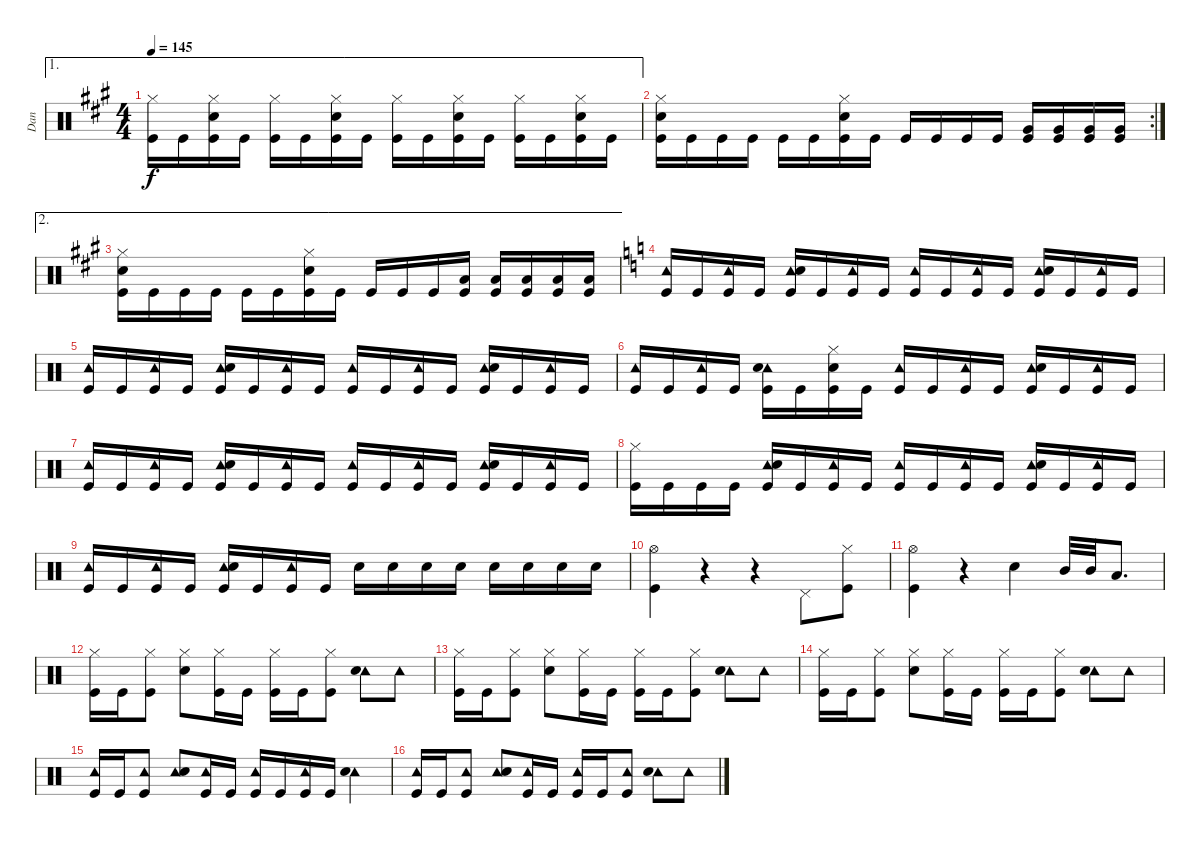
\track ("Dan" "Dan") {instrument percussion}
\staff {score}
\articulation defaults
\ae 1
\ts (4 4)
\tempo 145
\clef neutral
\ks a
("Hi-Hat (closed)" "Kick (hit)").16{dy f} "Kick (hit)".16 ("Hi-Hat (closed)" "Snare (hit) 2" "Kick (hit)").16 "Kick (hit)".16 ("Hi-Hat (closed)" "Kick (hit)").16 "Kick (hit)".16 ("Hi-Hat (closed)" "Snare (hit) 2" "Kick (hit)").16 "Kick (hit)".16 ("Hi-Hat (closed)" "Kick (hit)").16 "Kick (hit)".16 ("Hi-Hat (closed)" "Snare (hit) 2" "Kick (hit)").16 "Kick (hit)".16 ("Hi-Hat (closed)" "Kick (hit)").16 "Kick (hit)".16 ("Hi-Hat (closed)" "Snare (hit) 2" "Kick (hit)").16 "Kick (hit)".16 |
\rc 2
("Hi-Hat (closed)" "Snare (hit) 2" "Kick (hit)").16 "Kick (hit)".16 "Kick (hit)".16 "Kick (hit)".16 "Kick (hit)".16 "Kick (hit)".16 ("Hi-Hat (closed)" "Snare (hit) 2" "Kick (hit)").16 "Kick (hit)".16 "Kick (hit)".16 "Kick (hit)".16 "Kick (hit)".16 "Kick (hit)".16 ("Very Low Tom (hit)" "Kick (hit)").16 ("Very Low Tom (hit)" "Kick (hit)").16 ("Very Low Tom (hit)" "Kick (hit)").16 ("Very Low Tom (hit)" "Kick (hit)").16 |
\ae 2
("Hi-Hat (closed)" "Snare (hit) 2" "Kick (hit)").16 "Kick (hit)".16 "Kick (hit)".16 "Kick (hit)".16 "Kick (hit)".16 "Kick (hit)".16 ("Hi-Hat (closed)" "Snare (hit) 2" "Kick (hit)").16 "Kick (hit)".16 "Kick (hit)".16 "Kick (hit)".16 "Kick (hit)".16 ("Low Tom (hit)" "Kick (hit)").16 ("Low Tom (hit)" "Kick (hit)").16 ("Low Tom (hit)" "Kick (hit)").16 ("Low Tom (hit)" "Kick (hit)").16 ("Low Tom (hit)" "Kick (hit)").16 |
\ks c
("Tambourine (hit)" "Kick (hit)").16 "Kick (hit)".16 ("Tambourine (hit)" "Kick (hit)").16 "Kick (hit)".16 ("Tambourine (hit)" "Snare (hit) 2" "Kick (hit)").16 "Kick (hit)".16 ("Tambourine (hit)" "Kick (hit)").16 "Kick (hit)".16 ("Tambourine (hit)" "Kick (hit)").16 "Kick (hit)".16 ("Tambourine (hit)" "Kick (hit)").16 "Kick (hit)".16 ("Tambourine (hit)" "Snare (hit) 2" "Kick (hit)").16 "Kick (hit)".16 ("Tambourine (hit)" "Kick (hit)").16 "Kick (hit)".16 |
("Tambourine (hit)" "Kick (hit)").16 "Kick (hit)".16 ("Tambourine (hit)" "Kick (hit)").16 "Kick (hit)".16 ("Tambourine (hit)" "Snare (hit) 2" "Kick (hit)").16 "Kick (hit)".16 ("Tambourine (hit)" "Kick (hit)").16 "Kick (hit)".16 ("Tambourine (hit)" "Kick (hit)").16 "Kick (hit)".16 ("Tambourine (hit)" "Kick (hit)").16 "Kick (hit)".16 ("Tambourine (hit)" "Snare (hit) 2" "Kick (hit)").16 "Kick (hit)".16 ("Tambourine (hit)" "Kick (hit)").16 "Kick (hit)".16 |
("Tambourine (hit)" "Kick (hit)").16 "Kick (hit)".16 ("Tambourine (hit)" "Kick (hit)").16 "Kick (hit)".16 ("Tambourine (hit)" "Snare (hit) 2" "Kick (hit)").16 "Kick (hit)".16 ("Hi-Hat (closed)" "Snare (hit) 2" "Kick (hit)").16 "Kick (hit)".16 ("Tambourine (hit)" "Kick (hit)").16 "Kick (hit)".16 ("Tambourine (hit)" "Kick (hit)").16 "Kick (hit)".16 ("Tambourine (hit)" "Snare (hit) 2" "Kick (hit)").16 "Kick (hit)".16 ("Tambourine (hit)" "Kick (hit)").16 "Kick (hit)".16 |
("Tambourine (hit)" "Kick (hit)").16 "Kick (hit)".16 ("Tambourine (hit)" "Kick (hit)").16 "Kick (hit)".16 ("Tambourine (hit)" "Snare (hit) 2" "Kick (hit)").16 "Kick (hit)".16 ("Tambourine (hit)" "Kick (hit)").16 "Kick (hit)".16 ("Tambourine (hit)" "Kick (hit)").16 "Kick (hit)".16 ("Tambourine (hit)" "Kick (hit)").16 "Kick (hit)".16 ("Tambourine (hit)" "Snare (hit) 2" "Kick (hit)").16 "Kick (hit)".16 ("Tambourine (hit)" "Kick (hit)").16 "Kick (hit)".16 |
("Hi-Hat (closed)" "Kick (hit)").16 "Kick (hit)".16 "Kick (hit)".16 "Kick (hit)".16 ("Tambourine (hit)" "Snare (hit) 2" "Kick (hit)").16 "Kick (hit)".16 ("Tambourine (hit)" "Kick (hit)").16 "Kick (hit)".16 ("Tambourine (hit)" "Kick (hit)").16 "Kick (hit)".16 ("Tambourine (hit)" "Kick (hit)").16 "Kick (hit)".16 ("Tambourine (hit)" "Snare (hit) 2" "Kick (hit)").16 "Kick (hit)".16 ("Tambourine (hit)" "Kick (hit)").16 "Kick (hit)".16 |
("Tambourine (hit)" "Kick (hit)").16 "Kick (hit)".16 ("Tambourine (hit)" "Kick (hit)").16 "Kick (hit)".16 ("Tambourine (hit)" "Snare (hit) 2" "Kick (hit)").16 "Kick (hit)".16 ("Tambourine (hit)" "Kick (hit)").16 "Kick (hit)".16 "Snare (hit) 2".16 "Snare (hit) 2".16 "Snare (hit) 2".16 "Snare (hit) 2".16 "Snare (hit) 2".16 "Snare (hit) 2".16 "Snare (hit) 2".16 "Snare (hit) 2".16 |
("Hi-Hat (open)" "Kick (hit)").4 r.4 r.4 "Pedal Hi-Hat (hit)".8 ("Hi-Hat (closed)" "Kick (hit)").8 |
("Hi-Hat (open)" "Kick (hit)").4 r.4 "Snare (hit) 2".4 "Mid Tom (hit)".32 "Mid Tom (hit)".32 "Low Tom (hit)".8{d} |
("Hi-Hat (closed)" "Kick (hit)").16 "Kick (hit)".16 ("Hi-Hat (closed)" "Kick (hit)").8 ("Hi-Hat (closed)" "Snare (hit) 2").8 ("Hi-Hat (closed)" "Kick (hit)").16 "Kick (hit)".16 ("Hi-Hat (closed)" "Kick (hit)").16 "Kick (hit)".16 ("Hi-Hat (closed)" "Kick (hit)").8 ("Tambourine (hit)" "Snare (hit) 2").8 "Tambourine (hit)".8 |
("Hi-Hat (closed)" "Kick (hit)").16 "Kick (hit)".16 ("Hi-Hat (closed)" "Kick (hit)").8 ("Hi-Hat (closed)" "Snare (hit) 2").8 ("Hi-Hat (closed)" "Kick (hit)").16 "Kick (hit)".16 ("Hi-Hat (closed)" "Kick (hit)").16 "Kick (hit)".16 ("Hi-Hat (closed)" "Kick (hit)").8 ("Tambourine (hit)" "Snare (hit) 2").8 "Tambourine (hit)".8 |
("Hi-Hat (closed)" "Kick (hit)").16 "Kick (hit)".16 ("Hi-Hat (closed)" "Kick (hit)").8 ("Hi-Hat (closed)" "Snare (hit) 2").8 ("Hi-Hat (closed)" "Kick (hit)").16 "Kick (hit)".16 ("Hi-Hat (closed)" "Kick (hit)").16 "Kick (hit)".16 ("Hi-Hat (closed)" "Kick (hit)").8 ("Tambourine (hit)" "Snare (hit) 2").8 "Tambourine (hit)".8 |
("Tambourine (hit)" "Kick (hit)").16 "Kick (hit)".16 ("Tambourine (hit)" "Kick (hit)").8 ("Tambourine (hit)" "Snare (hit) 2").8 ("Tambourine (hit)" "Kick (hit)").16 "Kick (hit)".16 ("Tambourine (hit)" "Kick (hit)").16 "Kick (hit)".16 ("Tambourine (hit)" "Kick (hit)").16 "Kick (hit)".16 ("Tambourine (hit)" "Snare (hit) 2").4 |
("Tambourine (hit)" "Kick (hit)").16 "Kick (hit)".16 ("Tambourine (hit)" "Kick (hit)").8 ("Tambourine (hit)" "Snare (hit) 2").8 ("Tambourine (hit)" "Kick (hit)").16 "Kick (hit)".16 ("Tambourine (hit)" "Kick (hit)").16 "Kick (hit)".16 ("Tambourine (hit)" "Kick (hit)").8 ("Tambourine (hit)" "Snare (hit) 2").8 "Tambourine (hit)".8
